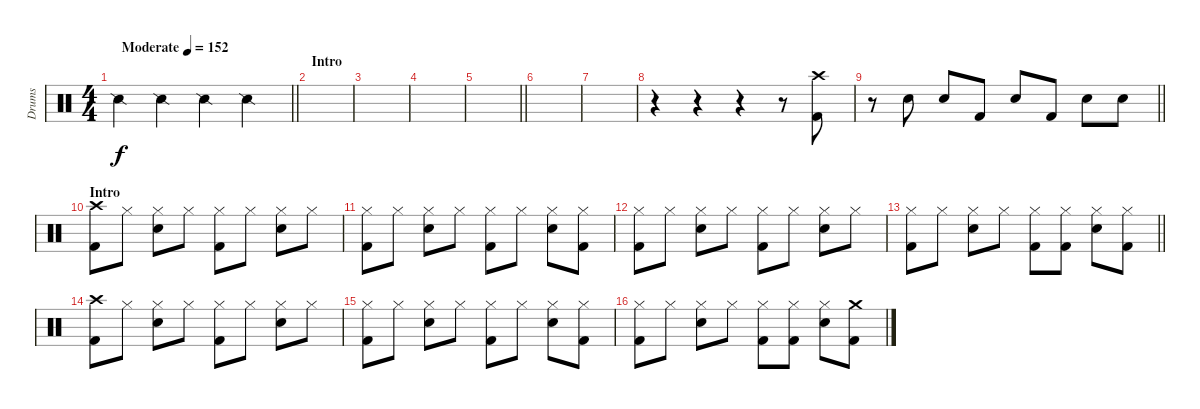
\track ("Drums" "Drums") {instrument percussion}
\staff
\articulation defaults
\ts (4 4)
\tempo (152 "Moderate")
\clef neutral
\barLineRight lightlight
\ks c "Snare (side stick) 2".4{dy f} "Snare (side stick) 2".4 "Snare (side stick) 2".4 "Snare (side stick) 2".4
|
\section ("" "Intro")
|
|
|
\barLineRight lightlight
|
|
|
r.4 r.4 r.4 r.8 ("Crash high (hit)" "Kick (hit) 2").8 |
\barLineRight lightlight
r.8 "Electric Snare (hit)".8 "Electric Snare (hit)".8 "Kick (hit) 2".8 "Electric Snare (hit)".8 "Kick (hit) 2".8 "Electric Snare (hit)".8 "Electric Snare (hit)".8 |
\section ("" "Intro")
("Crash high (hit)" "Kick (hit) 2").8 "Hi-Hat (closed)".8 ("Hi-Hat (closed)" "Electric Snare (hit)").8 "Hi-Hat (closed)".8 ("Hi-Hat (closed)" "Kick (hit) 2").8 "Hi-Hat (closed)".8 ("Hi-Hat (closed)" "Electric Snare (hit)").8 "Hi-Hat (closed)".8 |
("Hi-Hat (closed)" "Kick (hit) 2").8 "Hi-Hat (closed)".8 ("Hi-Hat (closed)" "Electric Snare (hit)").8 "Hi-Hat (closed)".8 ("Hi-Hat (closed)" "Kick (hit) 2").8 "Hi-Hat (closed)".8 ("Hi-Hat (closed)" "Electric Snare (hit)").8 ("Hi-Hat (closed)" "Kick (hit) 2").8 |
("Hi-Hat (closed)" "Kick (hit) 2").8 "Hi-Hat (closed)".8 ("Hi-Hat (closed)" "Electric Snare (hit)").8 "Hi-Hat (closed)".8 ("Hi-Hat (closed)" "Kick (hit) 2").8 "Hi-Hat (closed)".8 ("Hi-Hat (closed)" "Electric Snare (hit)").8 "Hi-Hat (closed)".8 |
\barLineRight lightlight
("Hi-Hat (closed)" "Kick (hit) 2").8 "Hi-Hat (closed)".8 ("Hi-Hat (closed)" "Electric Snare (hit)").8 "Hi-Hat (closed)".8 ("Hi-Hat (closed)" "Kick (hit) 2").8 ("Hi-Hat (closed)" "Kick (hit) 2").8 ("Hi-Hat (closed)" "Electric Snare (hit)").8 ("Hi-Hat (closed)" "Kick (hit) 2").8 |
("Crash high (hit)" "Kick (hit) 2").8 "Hi-Hat (closed)".8 ("Hi-Hat (closed)" "Electric Snare (hit)").8 "Hi-Hat (closed)".8 ("Hi-Hat (closed)" "Kick (hit) 2").8 "Hi-Hat (closed)".8 ("Hi-Hat (closed)" "Electric Snare (hit)").8 "Hi-Hat (closed)".8 |
("Hi-Hat (closed)" "Kick (hit) 2").8 "Hi-Hat (closed)".8 ("Hi-Hat (closed)" "Electric Snare (hit)").8 "Hi-Hat (closed)".8 ("Hi-Hat (closed)" "Kick (hit) 2").8 "Hi-Hat (closed)".8 ("Hi-Hat (closed)" "Electric Snare (hit)").8 ("Hi-Hat (closed)" "Kick (hit) 2").8 |
("Hi-Hat (closed)" "Kick (hit) 2").8 "Hi-Hat (closed)".8 ("Hi-Hat (closed)" "Electric Snare (hit)").8 "Hi-Hat (closed)".8 ("Hi-Hat (closed)" "Kick (hit) 2").8 ("Hi-Hat (closed)" "Kick (hit) 2").8 ("Hi-Hat (closed)" "Electric Snare (hit)").8 ("Crash medium (hit)" "Kick (hit) 2").8
